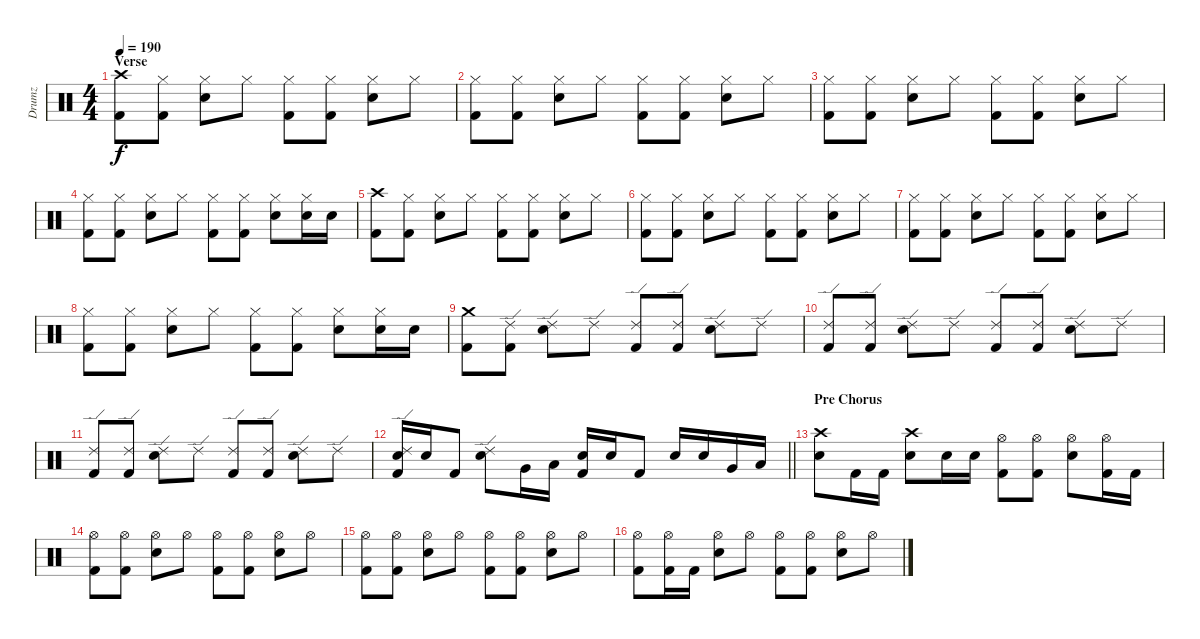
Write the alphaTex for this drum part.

\track ("Drumz" "Drumz") {instrument percussion}
\staff {score}
\articulation defaults
\ts (4 4)
\section ("" "Verse")
\tempo 190
\clef neutral
\ks c
("Crash high (hit)" "Kick (hit) 2").8{dy f} ("Hi-Hat (closed)" "Kick (hit) 2").8 ("Snare (hit) 2" "Hi-Hat (closed)").8 "Hi-Hat (closed)".8 ("Hi-Hat (closed)" "Kick (hit) 2").8 ("Hi-Hat (closed)" "Kick (hit) 2").8 ("Snare (hit) 2" "Hi-Hat (closed)").8 "Hi-Hat (closed)".8 |
("Hi-Hat (closed)" "Kick (hit) 2").8 ("Hi-Hat (closed)" "Kick (hit) 2").8 ("Snare (hit) 2" "Hi-Hat (closed)").8 "Hi-Hat (closed)".8 ("Hi-Hat (closed)" "Kick (hit) 2").8 ("Hi-Hat (closed)" "Kick (hit) 2").8 ("Snare (hit) 2" "Hi-Hat (closed)").8 "Hi-Hat (closed)".8 |
("Hi-Hat (closed)" "Kick (hit) 2").8 ("Hi-Hat (closed)" "Kick (hit) 2").8 ("Snare (hit) 2" "Hi-Hat (closed)").8 "Hi-Hat (closed)".8 ("Hi-Hat (closed)" "Kick (hit) 2").8 ("Hi-Hat (closed)" "Kick (hit) 2").8 ("Snare (hit) 2" "Hi-Hat (closed)").8 "Hi-Hat (closed)".8 |
("Hi-Hat (closed)" "Kick (hit) 2").8 ("Hi-Hat (closed)" "Kick (hit) 2").8 ("Snare (hit) 2" "Hi-Hat (closed)").8 "Hi-Hat (closed)".8 ("Hi-Hat (closed)" "Kick (hit) 2").8 ("Hi-Hat (closed)" "Kick (hit) 2").8 ("Snare (hit) 2" "Hi-Hat (closed)").8 ("Snare (hit) 2" "Hi-Hat (closed)").16 "Snare (hit) 2".16 |
("Crash high (hit)" "Kick (hit) 2").8 ("Hi-Hat (closed)" "Kick (hit) 2").8 ("Snare (hit) 2" "Hi-Hat (closed)").8 "Hi-Hat (closed)".8 ("Hi-Hat (closed)" "Kick (hit) 2").8 ("Hi-Hat (closed)" "Kick (hit) 2").8 ("Snare (hit) 2" "Hi-Hat (closed)").8 "Hi-Hat (closed)".8 |
("Hi-Hat (closed)" "Kick (hit) 2").8 ("Hi-Hat (closed)" "Kick (hit) 2").8 ("Snare (hit) 2" "Hi-Hat (closed)").8 "Hi-Hat (closed)".8 ("Hi-Hat (closed)" "Kick (hit) 2").8 ("Hi-Hat (closed)" "Kick (hit) 2").8 ("Snare (hit) 2" "Hi-Hat (closed)").8 "Hi-Hat (closed)".8 |
("Hi-Hat (closed)" "Kick (hit) 2").8 ("Hi-Hat (closed)" "Kick (hit) 2").8 ("Snare (hit) 2" "Hi-Hat (closed)").8 "Hi-Hat (closed)".8 ("Hi-Hat (closed)" "Kick (hit) 2").8 ("Hi-Hat (closed)" "Kick (hit) 2").8 ("Snare (hit) 2" "Hi-Hat (closed)").8 "Hi-Hat (closed)".8 |
("Hi-Hat (closed)" "Kick (hit) 2").8 ("Hi-Hat (closed)" "Kick (hit) 2").8 ("Snare (hit) 2" "Hi-Hat (closed)").8 "Hi-Hat (closed)".8 ("Hi-Hat (closed)" "Kick (hit) 2").8 ("Hi-Hat (closed)" "Kick (hit) 2").8 ("Snare (hit) 2" "Hi-Hat (closed)").8 ("Snare (hit) 2" "Hi-Hat (closed)").16 "Snare (hit) 2".16 |
("Crash medium (hit)" "Kick (hit) 2").8 ("Ride (edge) 2" "Kick (hit) 2").8 ("Ride (edge) 2" "Snare (hit) 2").8 "Ride (edge) 2".8 ("Ride (edge) 2" "Kick (hit) 2").8 ("Ride (edge) 2" "Kick (hit) 2").8 ("Ride (edge) 2" "Snare (hit) 2").8 "Ride (edge) 2".8 |
("Ride (edge) 2" "Kick (hit) 2").8 ("Ride (edge) 2" "Kick (hit) 2").8 ("Ride (edge) 2" "Snare (hit) 2").8 "Ride (edge) 2".8 ("Ride (edge) 2" "Kick (hit) 2").8 ("Ride (edge) 2" "Kick (hit) 2").8 ("Ride (edge) 2" "Snare (hit) 2").8 "Ride (edge) 2".8 |
("Ride (edge) 2" "Kick (hit) 2").8 ("Ride (edge) 2" "Kick (hit) 2").8 ("Ride (edge) 2" "Snare (hit) 2").8 "Ride (edge) 2".8 ("Ride (edge) 2" "Kick (hit) 2").8 ("Ride (edge) 2" "Kick (hit) 2").8 ("Ride (edge) 2" "Snare (hit) 2").8 "Ride (edge) 2".8 |
\barLineRight lightlight
("Ride (edge) 2" "Snare (hit) 2" "Kick (hit) 2").16 "Snare (hit) 2".16 "Kick (hit) 2".8 ("Ride (edge) 2" "Snare (hit) 2").8 "Very Low Tom (hit)".16 "Low Floor Tom (hit)".16 ("Snare (hit) 2" "Kick (hit) 2").16 "Snare (hit) 2".16 "Kick (hit) 2".8 "Snare (hit) 2".16 "Snare (hit) 2".16 "Very Low Tom (hit)".16 "Low Floor Tom (hit)".16 |
\section ("" "Pre Chorus")
("Crash high (hit)" "Snare (hit) 2").8 "Kick (hit) 2".16 "Kick (hit) 2".16 ("Crash high (hit)" "Snare (hit) 2").8 "Snare (hit) 2".16 "Snare (hit) 2".16 ("Hi-Hat (open)" "Kick (hit) 2").8 ("Hi-Hat (open)" "Kick (hit) 2").8 ("Snare (hit) 2" "Hi-Hat (open)").8 ("Hi-Hat (open)" "Kick (hit) 2").16 "Kick (hit) 2".16 |
("Hi-Hat (open)" "Kick (hit) 2").8 ("Hi-Hat (open)" "Kick (hit) 2").8 ("Snare (hit) 2" "Hi-Hat (open)").8 "Hi-Hat (open)".8 ("Hi-Hat (open)" "Kick (hit) 2").8 ("Hi-Hat (open)" "Kick (hit) 2").8 ("Snare (hit) 2" "Hi-Hat (open)").8 "Hi-Hat (open)".8 |
("Hi-Hat (open)" "Kick (hit) 2").8 ("Hi-Hat (open)" "Kick (hit) 2").8 ("Snare (hit) 2" "Hi-Hat (open)").8 "Hi-Hat (open)".8 ("Hi-Hat (open)" "Kick (hit) 2").8 ("Hi-Hat (open)" "Kick (hit) 2").8 ("Snare (hit) 2" "Hi-Hat (open)").8 "Hi-Hat (open)".8 |
("Hi-Hat (open)" "Kick (hit) 2").8 ("Hi-Hat (open)" "Kick (hit) 2").16 "Kick (hit) 2".16 ("Snare (hit) 2" "Hi-Hat (open)").8 "Hi-Hat (open)".8 ("Hi-Hat (open)" "Kick (hit) 2").8 ("Hi-Hat (open)" "Kick (hit) 2").8 ("Snare (hit) 2" "Hi-Hat (open)").8 "Hi-Hat (open)".8
